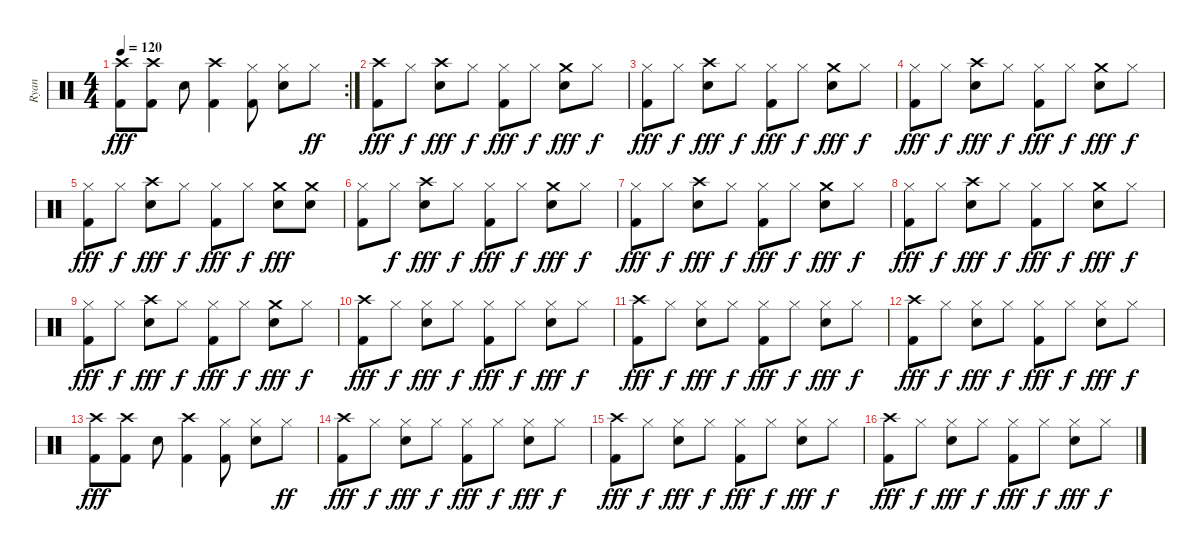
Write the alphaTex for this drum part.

\track ("Ryan" "Ryan") {instrument percussion}
\staff {score}
\articulation defaults
\rc 2
\ts (4 4)
\tempo 120
\clef neutral
\ks c
("Crash high (hit)" "Kick (hit) 2").8{dy fff} ("Crash high (hit)" "Kick (hit) 2").8 "Snare (hit) 2".8 ("Crash high (hit)" "Kick (hit) 2").4 ("Hi-Hat (closed)" "Kick (hit) 2").8 ("Hi-Hat (closed)" "Snare (hit) 2").8 "Hi-Hat (closed)".8{dy ff} |
("Crash high (hit)" "Kick (hit) 2").8{dy fff} "Hi-Hat (closed)".8{dy f} ("Crash high (hit)" "Snare (hit) 2").8{dy fff} "Hi-Hat (closed)".8{dy f} ("Hi-Hat (closed)" "Kick (hit) 2").8{dy fff} "Hi-Hat (closed)".8{dy f} ("Crash medium (hit)" "Snare (hit) 2").8{dy fff} "Hi-Hat (closed)".8{dy f} |
("Hi-Hat (closed)" "Kick (hit) 2").8{dy fff} "Hi-Hat (closed)".8{dy f} ("Crash high (hit)" "Snare (hit) 2").8{dy fff} "Hi-Hat (closed)".8{dy f} ("Hi-Hat (closed)" "Kick (hit) 2").8{dy fff} "Hi-Hat (closed)".8{dy f} ("Crash medium (hit)" "Snare (hit) 2").8{dy fff} "Hi-Hat (closed)".8{dy f} |
("Hi-Hat (closed)" "Kick (hit) 2").8{dy fff} "Hi-Hat (closed)".8{dy f} ("Crash high (hit)" "Snare (hit) 2").8{dy fff} "Hi-Hat (closed)".8{dy f} ("Hi-Hat (closed)" "Kick (hit) 2").8{dy fff} "Hi-Hat (closed)".8{dy f} ("Crash medium (hit)" "Snare (hit) 2").8{dy fff} "Hi-Hat (closed)".8{dy f} |
("Hi-Hat (closed)" "Kick (hit) 2").8{dy fff} "Hi-Hat (closed)".8{dy f} ("Crash high (hit)" "Snare (hit) 2").8{dy fff} "Hi-Hat (closed)".8{dy f} ("Hi-Hat (closed)" "Kick (hit) 2").8{dy fff} "Hi-Hat (closed)".8{dy f} ("Crash medium (hit)" "Snare (hit) 2").8{dy fff} ("Crash medium (hit)" "Snare (hit) 2").8 |
("Hi-Hat (closed)" "Kick (hit) 2").8 "Hi-Hat (closed)".8{dy f} ("Crash high (hit)" "Snare (hit) 2").8{dy fff} "Hi-Hat (closed)".8{dy f} ("Hi-Hat (closed)" "Kick (hit) 2").8{dy fff} "Hi-Hat (closed)".8{dy f} ("Crash medium (hit)" "Snare (hit) 2").8{dy fff} "Hi-Hat (closed)".8{dy f} |
("Hi-Hat (closed)" "Kick (hit) 2").8{dy fff} "Hi-Hat (closed)".8{dy f} ("Crash high (hit)" "Snare (hit) 2").8{dy fff} "Hi-Hat (closed)".8{dy f} ("Hi-Hat (closed)" "Kick (hit) 2").8{dy fff} "Hi-Hat (closed)".8{dy f} ("Crash medium (hit)" "Snare (hit) 2").8{dy fff} "Hi-Hat (closed)".8{dy f} |
("Hi-Hat (closed)" "Kick (hit) 2").8{dy fff} "Hi-Hat (closed)".8{dy f} ("Crash high (hit)" "Snare (hit) 2").8{dy fff} "Hi-Hat (closed)".8{dy f} ("Hi-Hat (closed)" "Kick (hit) 2").8{dy fff} "Hi-Hat (closed)".8{dy f} ("Crash medium (hit)" "Snare (hit) 2").8{dy fff} "Hi-Hat (closed)".8{dy f} |
("Hi-Hat (closed)" "Kick (hit) 2").8{dy fff} "Hi-Hat (closed)".8{dy f} ("Crash high (hit)" "Snare (hit) 2").8{dy fff} "Hi-Hat (closed)".8{dy f} ("Hi-Hat (closed)" "Kick (hit) 2").8{dy fff} "Hi-Hat (closed)".8{dy f} ("Crash medium (hit)" "Snare (hit) 2").8{dy fff} "Hi-Hat (closed)".8{dy f} |
("Crash high (hit)" "Kick (hit) 2").8{dy fff} "Hi-Hat (closed)".8{dy f} ("Hi-Hat (closed)" "Snare (hit) 2").8{dy fff} "Hi-Hat (closed)".8{dy f} ("Hi-Hat (closed)" "Kick (hit) 2").8{dy fff} "Hi-Hat (closed)".8{dy f} ("Hi-Hat (closed)" "Snare (hit) 2").8{dy fff} "Hi-Hat (closed)".8{dy f} |
("Crash high (hit)" "Kick (hit) 2").8{dy fff} "Hi-Hat (closed)".8{dy f} ("Hi-Hat (closed)" "Snare (hit) 2").8{dy fff} "Hi-Hat (closed)".8{dy f} ("Hi-Hat (closed)" "Kick (hit) 2").8{dy fff} "Hi-Hat (closed)".8{dy f} ("Hi-Hat (closed)" "Snare (hit) 2").8{dy fff} "Hi-Hat (closed)".8{dy f} |
("Crash high (hit)" "Kick (hit) 2").8{dy fff} "Hi-Hat (closed)".8{dy f} ("Hi-Hat (closed)" "Snare (hit) 2").8{dy fff} "Hi-Hat (closed)".8{dy f} ("Hi-Hat (closed)" "Kick (hit) 2").8{dy fff} "Hi-Hat (closed)".8{dy f} ("Hi-Hat (closed)" "Snare (hit) 2").8{dy fff} "Hi-Hat (closed)".8{dy f} |
("Crash high (hit)" "Kick (hit) 2").8{dy fff} ("Crash high (hit)" "Kick (hit) 2").8 "Snare (hit) 2".8 ("Crash high (hit)" "Kick (hit) 2").4 ("Hi-Hat (closed)" "Kick (hit) 2").8 ("Hi-Hat (closed)" "Snare (hit) 2").8 "Hi-Hat (closed)".8{dy ff} |
("Crash high (hit)" "Kick (hit) 2").8{dy fff} "Hi-Hat (closed)".8{dy f} ("Hi-Hat (closed)" "Snare (hit) 2").8{dy fff} "Hi-Hat (closed)".8{dy f} ("Hi-Hat (closed)" "Kick (hit) 2").8{dy fff} "Hi-Hat (closed)".8{dy f} ("Hi-Hat (closed)" "Snare (hit) 2").8{dy fff} "Hi-Hat (closed)".8{dy f} |
("Crash high (hit)" "Kick (hit) 2").8{dy fff} "Hi-Hat (closed)".8{dy f} ("Hi-Hat (closed)" "Snare (hit) 2").8{dy fff} "Hi-Hat (closed)".8{dy f} ("Hi-Hat (closed)" "Kick (hit) 2").8{dy fff} "Hi-Hat (closed)".8{dy f} ("Hi-Hat (closed)" "Snare (hit) 2").8{dy fff} "Hi-Hat (closed)".8{dy f} |
("Crash high (hit)" "Kick (hit) 2").8{dy fff} "Hi-Hat (closed)".8{dy f} ("Hi-Hat (closed)" "Snare (hit) 2").8{dy fff} "Hi-Hat (closed)".8{dy f} ("Hi-Hat (closed)" "Kick (hit) 2").8{dy fff} "Hi-Hat (closed)".8{dy f} ("Hi-Hat (closed)" "Snare (hit) 2").8{dy fff} "Hi-Hat (closed)".8{dy f}
